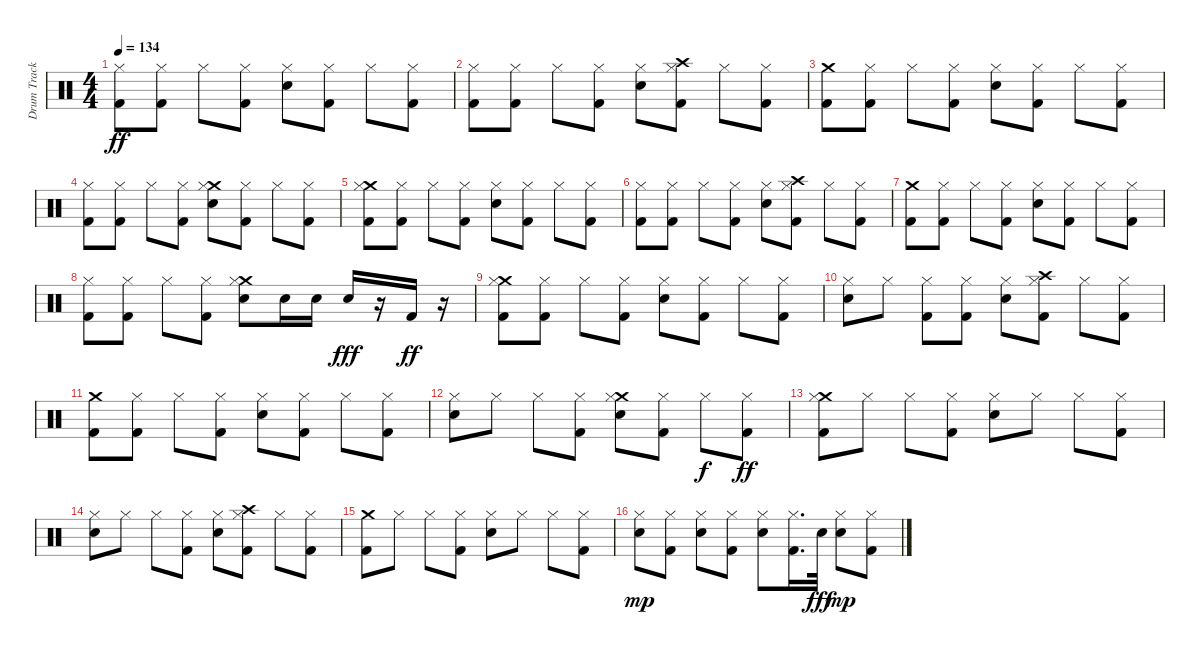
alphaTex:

\track ("Drum Track" "Drum Track") {instrument percussion}
\staff {score}
\articulation defaults
\ts (4 4)
\tempo 134
\clef neutral
\ks c
("Kick (hit) 2" "Hi-Hat (closed)").8{dy ff} ("Kick (hit) 2" "Hi-Hat (closed)").8 "Hi-Hat (closed)".8 ("Kick (hit) 2" "Hi-Hat (closed)").8 ("Electric Snare (hit)" "Hi-Hat (closed)").8 ("Kick (hit) 2" "Hi-Hat (closed)").8 "Hi-Hat (closed)".8 ("Kick (hit) 2" "Hi-Hat (closed)").8 |
("Kick (hit) 2" "Hi-Hat (closed)").8 ("Kick (hit) 2" "Hi-Hat (closed)").8 "Hi-Hat (closed)".8 ("Kick (hit) 2" "Hi-Hat (closed)").8 ("Electric Snare (hit)" "Hi-Hat (closed)").8 ("Kick (hit) 2" "Crash high (hit)" "Hi-Hat (closed)").8 "Hi-Hat (closed)".8 ("Kick (hit) 2" "Hi-Hat (closed)").8 |
("Kick (hit) 2" "Crash medium (hit)").8 ("Kick (hit) 2" "Hi-Hat (closed)").8 "Hi-Hat (closed)".8 ("Kick (hit) 2" "Hi-Hat (closed)").8 ("Electric Snare (hit)" "Hi-Hat (closed)").8 ("Kick (hit) 2" "Hi-Hat (closed)").8 "Hi-Hat (closed)".8 ("Kick (hit) 2" "Hi-Hat (closed)").8 |
("Kick (hit) 2" "Hi-Hat (closed)").8 ("Kick (hit) 2" "Hi-Hat (closed)").8 "Hi-Hat (closed)".8 ("Kick (hit) 2" "Hi-Hat (closed)").8 ("Electric Snare (hit)" "Crash medium (hit)" "Hi-Hat (closed)").8 ("Kick (hit) 2" "Hi-Hat (closed)").8 "Hi-Hat (closed)".8 ("Kick (hit) 2" "Hi-Hat (closed)").8 |
("Kick (hit) 2" "Crash medium (hit)" "Hi-Hat (closed)").8 ("Kick (hit) 2" "Hi-Hat (closed)").8 "Hi-Hat (closed)".8 ("Kick (hit) 2" "Hi-Hat (closed)").8 ("Electric Snare (hit)" "Hi-Hat (closed)").8 ("Kick (hit) 2" "Hi-Hat (closed)").8 "Hi-Hat (closed)".8 ("Kick (hit) 2" "Hi-Hat (closed)").8 |
("Kick (hit) 2" "Hi-Hat (closed)").8 ("Kick (hit) 2" "Hi-Hat (closed)").8 "Hi-Hat (closed)".8 ("Kick (hit) 2" "Hi-Hat (closed)").8 ("Electric Snare (hit)" "Hi-Hat (closed)").8 ("Kick (hit) 2" "Crash high (hit)" "Hi-Hat (closed)").8 "Hi-Hat (closed)".8 ("Kick (hit) 2" "Hi-Hat (closed)").8 |
("Kick (hit) 2" "Crash medium (hit)").8 ("Kick (hit) 2" "Hi-Hat (closed)").8 "Hi-Hat (closed)".8 ("Kick (hit) 2" "Hi-Hat (closed)").8 ("Electric Snare (hit)" "Hi-Hat (closed)").8 ("Kick (hit) 2" "Hi-Hat (closed)").8 "Hi-Hat (closed)".8 ("Kick (hit) 2" "Hi-Hat (closed)").8 |
("Kick (hit) 2" "Hi-Hat (closed)").8 ("Kick (hit) 2" "Hi-Hat (closed)").8 "Hi-Hat (closed)".8 ("Kick (hit) 2" "Hi-Hat (closed)").8 ("Electric Snare (hit)" "Crash medium (hit)" "Hi-Hat (closed)").8 "Electric Snare (hit)".16 "Electric Snare (hit)".16 "Electric Snare (hit)".16{dy fff} r.16 "Kick (hit) 2".16{dy ff} r.16 |
("Kick (hit) 2" "Crash medium (hit)" "Hi-Hat (closed)").8 ("Kick (hit) 2" "Hi-Hat (closed)").8 "Hi-Hat (closed)".8 ("Kick (hit) 2" "Hi-Hat (closed)").8 ("Electric Snare (hit)" "Hi-Hat (closed)").8 ("Kick (hit) 2" "Hi-Hat (closed)").8 "Hi-Hat (closed)".8 ("Kick (hit) 2" "Hi-Hat (closed)").8 |
("Electric Snare (hit)" "Hi-Hat (closed)").8 "Hi-Hat (closed)".8 ("Kick (hit) 2" "Hi-Hat (closed)").8 ("Kick (hit) 2" "Hi-Hat (closed)").8 ("Electric Snare (hit)" "Hi-Hat (closed)").8 ("Kick (hit) 2" "Crash high (hit)" "Hi-Hat (closed)").8 "Hi-Hat (closed)".8 ("Kick (hit) 2" "Hi-Hat (closed)").8 |
("Kick (hit) 2" "Crash medium (hit)").8 ("Kick (hit) 2" "Hi-Hat (closed)").8 "Hi-Hat (closed)".8 ("Kick (hit) 2" "Hi-Hat (closed)").8 ("Electric Snare (hit)" "Hi-Hat (closed)").8 ("Kick (hit) 2" "Hi-Hat (closed)").8 "Hi-Hat (closed)".8 ("Kick (hit) 2" "Hi-Hat (closed)").8 |
("Electric Snare (hit)" "Hi-Hat (closed)").8 "Hi-Hat (closed)".8 "Hi-Hat (closed)".8 ("Kick (hit) 2" "Hi-Hat (closed)").8 ("Electric Snare (hit)" "Crash medium (hit)" "Hi-Hat (closed)").8 ("Kick (hit) 2" "Hi-Hat (closed)").8 "Hi-Hat (closed)".8{dy f} ("Kick (hit) 2" "Hi-Hat (closed)").8{dy ff} |
("Kick (hit) 2" "Crash medium (hit)" "Hi-Hat (closed)").8 "Hi-Hat (closed)".8 "Hi-Hat (closed)".8 ("Kick (hit) 2" "Hi-Hat (closed)").8 ("Electric Snare (hit)" "Hi-Hat (closed)").8 "Hi-Hat (closed)".8 "Hi-Hat (closed)".8 ("Kick (hit) 2" "Hi-Hat (closed)").8 |
("Electric Snare (hit)" "Hi-Hat (closed)").8 "Hi-Hat (closed)".8 "Hi-Hat (closed)".8 ("Kick (hit) 2" "Hi-Hat (closed)").8 ("Electric Snare (hit)" "Hi-Hat (closed)").8 ("Kick (hit) 2" "Crash high (hit)" "Hi-Hat (closed)").8 "Hi-Hat (closed)".8 ("Kick (hit) 2" "Hi-Hat (closed)").8 |
("Kick (hit) 2" "Crash medium (hit)").8 "Hi-Hat (closed)".8 "Hi-Hat (closed)".8 ("Kick (hit) 2" "Hi-Hat (closed)").8 ("Electric Snare (hit)" "Hi-Hat (closed)").8 "Hi-Hat (closed)".8 "Hi-Hat (closed)".8 ("Kick (hit) 2" "Hi-Hat (closed)").8 |
("Electric Snare (hit)" "Hi-Hat (closed)").8{dy mp} ("Kick (hit) 2" "Hi-Hat (closed)").8 ("Electric Snare (hit)" "Hi-Hat (closed)").8 ("Kick (hit) 2" "Hi-Hat (closed)").8 ("Electric Snare (hit)" "Hi-Hat (closed)").8 ("Kick (hit) 2" "Hi-Hat (closed)").16{d} "Electric Snare (hit)".32{dy fff} ("Electric Snare (hit)" "Hi-Hat (closed)").8{dy mp} ("Kick (hit) 2" "Hi-Hat (closed)").8
